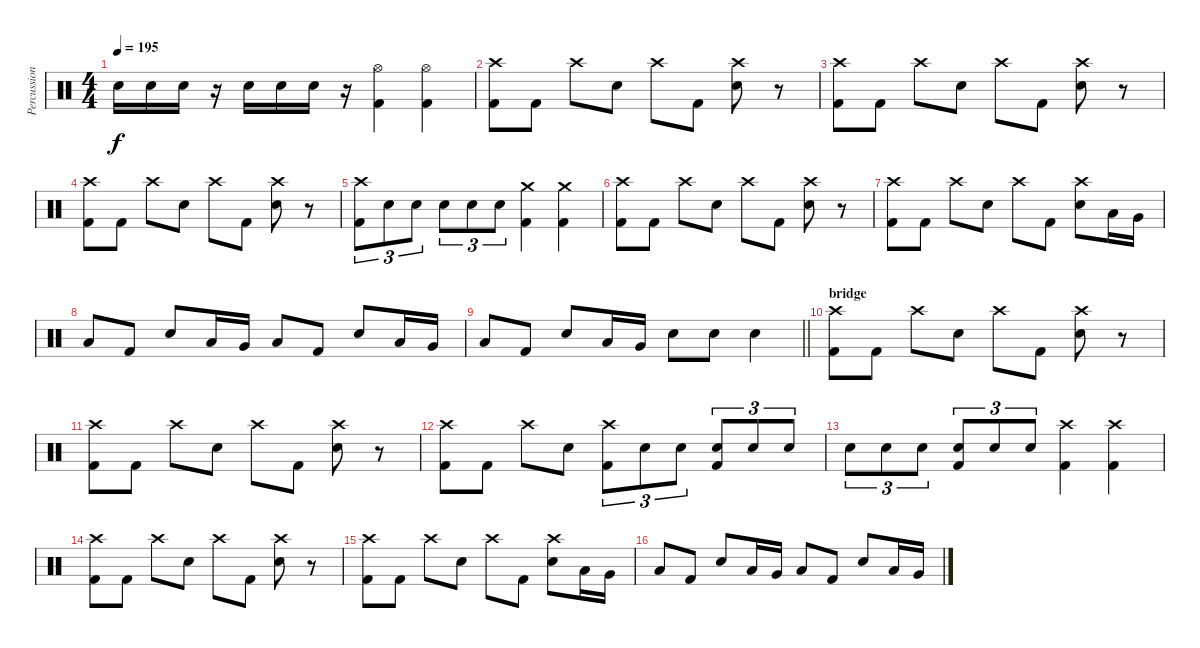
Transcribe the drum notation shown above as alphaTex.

\track ("Percussion" "Percussion") {instrument percussion}
\staff {score}
\articulation defaults
\ts (4 4)
\tempo 195
\clef neutral
\ks c "Snare (hit) 2".16{dy f} "Snare (hit) 2".16 "Snare (hit) 2".16
r.16 "Snare (hit) 2".16 "Snare (hit) 2".16 "Snare (hit) 2".16 r.16 ("Hi-Hat (open)" "Kick (hit) 2").4 ("Hi-Hat (open)" "Kick (hit) 2").4 |
("Crash high (hit)" "Kick (hit) 2").8 "Kick (hit) 2".8 "Crash high (hit)".8 "Snare (hit) 2".8 "Crash high (hit)".8 "Kick (hit) 2".8 ("Crash high (hit)" "Snare (hit) 2").8 r.8 |
("Crash high (hit)" "Kick (hit) 2").8 "Kick (hit) 2".8 "Crash high (hit)".8 "Snare (hit) 2".8 "Crash high (hit)".8 "Kick (hit) 2".8 ("Crash high (hit)" "Snare (hit) 2").8 r.8 |
("Crash high (hit)" "Kick (hit) 2").8 "Kick (hit) 2".8 "Crash high (hit)".8 "Snare (hit) 2".8 "Crash high (hit)".8 "Kick (hit) 2".8 ("Crash high (hit)" "Snare (hit) 2").8 r.8 |
("Crash high (hit)" "Kick (hit) 2").8{tu (3 2)} "Snare (hit) 2".8{tu (3 2)} "Snare (hit) 2".8{tu (3 2)} "Snare (hit) 2".8{tu (3 2)} "Snare (hit) 2".8{tu (3 2)} "Snare (hit) 2".8{tu (3 2)} ("Crash medium (hit)" "Kick (hit) 2").4 ("Crash medium (hit)" "Kick (hit) 2").4 |
("Crash high (hit)" "Kick (hit) 2").8 "Kick (hit) 2".8 "Crash high (hit)".8 "Snare (hit) 2".8 "Crash high (hit)".8 "Kick (hit) 2".8 ("Crash high (hit)" "Snare (hit) 2").8 r.8 |
("Crash high (hit)" "Kick (hit) 2").8 "Kick (hit) 2".8 "Crash high (hit)".8 "Snare (hit) 2".8 "Crash high (hit)".8 "Kick (hit) 2".8 ("Crash high (hit)" "Snare (hit) 2").8 "Low Tom (hit)".16 "Very Low Tom (hit)".16 |
"Low Floor Tom (hit)".8 "Kick (hit) 2".8 "Snare (hit) 2".8 "Low Tom (hit)".16 "Very Low Tom (hit)".16 "Low Floor Tom (hit)".8 "Kick (hit) 2".8 "Snare (hit) 2".8 "Low Tom (hit)".16 "Very Low Tom (hit)".16 |
\barLineRight lightlight "Low Floor Tom (hit)".8 "Kick (hit) 2".8 "Snare (hit) 2".8 "Low Tom (hit)".16 "Very Low Tom (hit)".16 "Snare (hit) 2".8 "Snare (hit) 2".8 "Snare (hit) 2".4
|
\section ("" "bridge")
("Crash high (hit)" "Kick (hit) 2").8 "Kick (hit) 2".8 "Crash high (hit)".8 "Snare (hit) 2".8 "Crash high (hit)".8 "Kick (hit) 2".8 ("Crash high (hit)" "Snare (hit) 2").8 r.8 |
("Crash high (hit)" "Kick (hit) 2").8 "Kick (hit) 2".8 "Crash high (hit)".8 "Snare (hit) 2".8 "Crash high (hit)".8 "Kick (hit) 2".8 ("Crash high (hit)" "Snare (hit) 2").8 r.8 |
("Crash high (hit)" "Kick (hit) 2").8 "Kick (hit) 2".8 "Crash high (hit)".8 "Snare (hit) 2".8 ("Crash high (hit)" "Kick (hit) 2").8{tu (3 2)} "Snare (hit) 2".8{tu (3 2)} "Snare (hit) 2".8{tu (3 2)} ("Snare (hit) 2" "Kick (hit) 2").8{tu (3 2)} "Snare (hit) 2".8{tu (3 2)} "Snare (hit) 2".8{tu (3 2)} |
"Snare (hit) 2".8{tu (3 2)} "Snare (hit) 2".8{tu (3 2)} "Snare (hit) 2".8{tu (3 2)} ("Snare (hit) 2" "Kick (hit) 2").8{tu (3 2)} "Snare (hit) 2".8{tu (3 2)} "Snare (hit) 2".8{tu (3 2)} ("Crash high (hit)" "Kick (hit) 2").4 ("Crash high (hit)" "Kick (hit) 2").4 |
("Crash high (hit)" "Kick (hit) 2").8 "Kick (hit) 2".8 "Crash high (hit)".8 "Snare (hit) 2".8 "Crash high (hit)".8 "Kick (hit) 2".8 ("Crash high (hit)" "Snare (hit) 2").8 r.8 |
("Crash high (hit)" "Kick (hit) 2").8 "Kick (hit) 2".8 "Crash high (hit)".8 "Snare (hit) 2".8 "Crash high (hit)".8 "Kick (hit) 2".8 ("Crash high (hit)" "Snare (hit) 2").8 "Low Tom (hit)".16 "Very Low Tom (hit)".16 |
"Low Floor Tom (hit)".8 "Kick (hit) 2".8 "Snare (hit) 2".8 "Low Tom (hit)".16 "Very Low Tom (hit)".16 "Low Floor Tom (hit)".8 "Kick (hit) 2".8 "Snare (hit) 2".8 "Low Tom (hit)".16 "Very Low Tom (hit)".16
